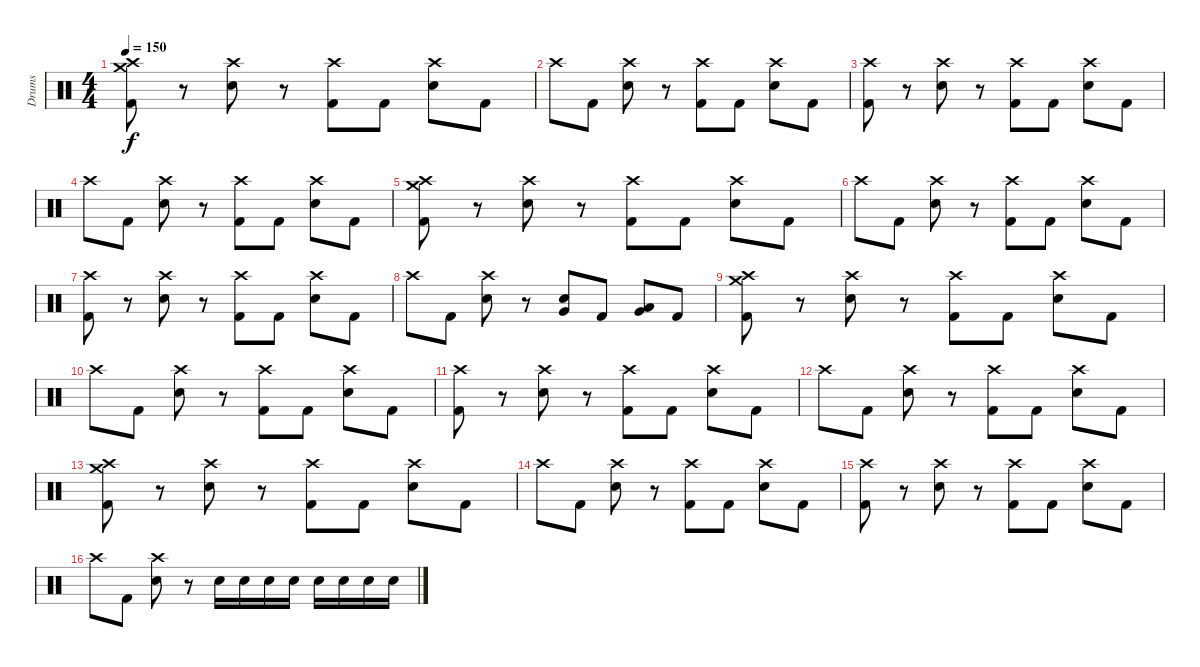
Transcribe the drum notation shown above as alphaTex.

\track ("Drums" "Drums") {instrument percussion}
\staff {score}
\articulation defaults
\ts (4 4)
\tempo 150
\clef neutral
\ks c
("Crash medium (hit)" "Crash high (hit)" "Kick (hit) 2").8{dy f} r.8 ("Crash high (hit)" "Electric Snare (hit)").8 r.8 ("Crash high (hit)" "Kick (hit) 2").8 "Kick (hit) 2".8 ("Crash high (hit)" "Electric Snare (hit)").8 "Kick (hit) 2".8 |
"Crash high (hit)".8 "Kick (hit) 2".8 ("Crash high (hit)" "Electric Snare (hit)").8 r.8 ("Crash high (hit)" "Kick (hit) 2").8 "Kick (hit) 2".8 ("Crash high (hit)" "Electric Snare (hit)").8 "Kick (hit) 2".8 |
("Crash high (hit)" "Kick (hit) 2").8 r.8 ("Crash high (hit)" "Electric Snare (hit)").8 r.8 ("Crash high (hit)" "Kick (hit) 2").8 "Kick (hit) 2".8 ("Crash high (hit)" "Electric Snare (hit)").8 "Kick (hit) 2".8 |
"Crash high (hit)".8 "Kick (hit) 2".8 ("Crash high (hit)" "Electric Snare (hit)").8 r.8 ("Crash high (hit)" "Kick (hit) 2").8 "Kick (hit) 2".8 ("Crash high (hit)" "Electric Snare (hit)").8 "Kick (hit) 2".8 |
("Crash medium (hit)" "Crash high (hit)" "Kick (hit) 2").8 r.8 ("Crash high (hit)" "Electric Snare (hit)").8 r.8 ("Crash high (hit)" "Kick (hit) 2").8 "Kick (hit) 2".8 ("Crash high (hit)" "Electric Snare (hit)").8 "Kick (hit) 2".8 |
"Crash high (hit)".8 "Kick (hit) 2".8 ("Crash high (hit)" "Electric Snare (hit)").8 r.8 ("Crash high (hit)" "Kick (hit) 2").8 "Kick (hit) 2".8 ("Crash high (hit)" "Electric Snare (hit)").8 "Kick (hit) 2".8 |
("Crash high (hit)" "Kick (hit) 2").8 r.8 ("Crash high (hit)" "Electric Snare (hit)").8 r.8 ("Crash high (hit)" "Kick (hit) 2").8 "Kick (hit) 2".8 ("Crash high (hit)" "Electric Snare (hit)").8 "Kick (hit) 2".8 |
"Crash high (hit)".8 "Kick (hit) 2".8 ("Crash high (hit)" "Electric Snare (hit)").8 r.8 ("Very Low Tom (hit)" "Electric Snare (hit)").8 "Kick (hit) 2".8 ("Low Tom (hit)" "Very Low Tom (hit)").8 "Kick (hit) 2".8 |
("Crash medium (hit)" "Crash high (hit)" "Kick (hit) 2").8 r.8 ("Crash high (hit)" "Electric Snare (hit)").8 r.8 ("Crash high (hit)" "Kick (hit) 2").8 "Kick (hit) 2".8 ("Crash high (hit)" "Electric Snare (hit)").8 "Kick (hit) 2".8 |
"Crash high (hit)".8 "Kick (hit) 2".8 ("Crash high (hit)" "Electric Snare (hit)").8 r.8 ("Crash high (hit)" "Kick (hit) 2").8 "Kick (hit) 2".8 ("Crash high (hit)" "Electric Snare (hit)").8 "Kick (hit) 2".8 |
("Crash high (hit)" "Kick (hit) 2").8 r.8 ("Crash high (hit)" "Electric Snare (hit)").8 r.8 ("Crash high (hit)" "Kick (hit) 2").8 "Kick (hit) 2".8 ("Crash high (hit)" "Electric Snare (hit)").8 "Kick (hit) 2".8 |
"Crash high (hit)".8 "Kick (hit) 2".8 ("Crash high (hit)" "Electric Snare (hit)").8 r.8 ("Crash high (hit)" "Kick (hit) 2").8 "Kick (hit) 2".8 ("Crash high (hit)" "Electric Snare (hit)").8 "Kick (hit) 2".8 |
("Crash medium (hit)" "Crash high (hit)" "Kick (hit) 2").8 r.8 ("Crash high (hit)" "Electric Snare (hit)").8 r.8 ("Crash high (hit)" "Kick (hit) 2").8 "Kick (hit) 2".8 ("Crash high (hit)" "Electric Snare (hit)").8 "Kick (hit) 2".8 |
"Crash high (hit)".8 "Kick (hit) 2".8 ("Crash high (hit)" "Electric Snare (hit)").8 r.8 ("Crash high (hit)" "Kick (hit) 2").8 "Kick (hit) 2".8 ("Crash high (hit)" "Electric Snare (hit)").8 "Kick (hit) 2".8 |
("Crash high (hit)" "Kick (hit) 2").8 r.8 ("Crash high (hit)" "Electric Snare (hit)").8 r.8 ("Crash high (hit)" "Kick (hit) 2").8 "Kick (hit) 2".8 ("Crash high (hit)" "Electric Snare (hit)").8 "Kick (hit) 2".8 |
"Crash high (hit)".8 "Kick (hit) 2".8 ("Crash high (hit)" "Electric Snare (hit)").8 r.8 "Electric Snare (hit)".16 "Electric Snare (hit)".16 "Electric Snare (hit)".16 "Electric Snare (hit)".16 "Electric Snare (hit)".16 "Electric Snare (hit)".16 "Electric Snare (hit)".16 "Electric Snare (hit)".16
